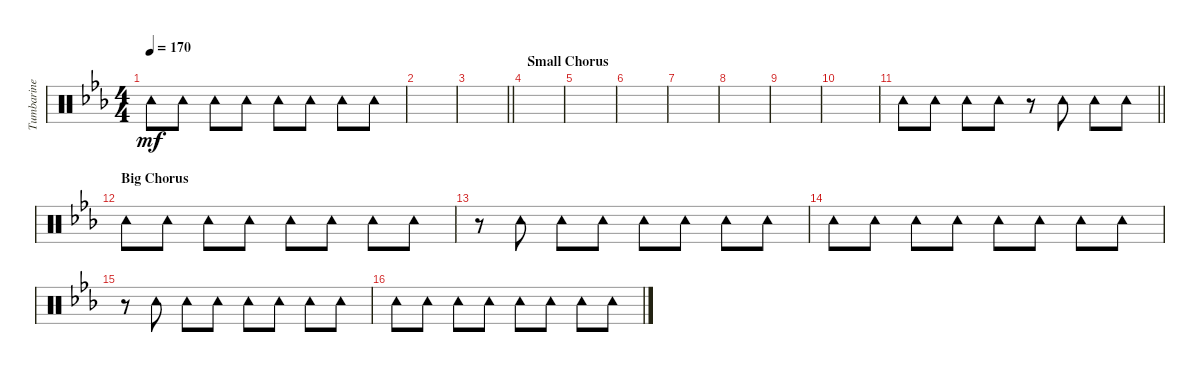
\track ("Tumbarine" "Tumbarine") {solo instrument percussion}
\staff {score}
\articulation defaults
\ts (4 4)
\tempo 170
\clef neutral
\ks eb "Tambourine (hit)".8{dy mf} "Tambourine (hit)".8 "Tambourine (hit)".8 "Tambourine (hit)".8 "Tambourine (hit)".8 "Tambourine (hit)".8 "Tambourine (hit)".8 "Tambourine (hit)".8
|
|
\barLineRight lightlight
|
\section ("" "Small Chorus")
|
|
|
|
|
|
|
\barLineRight lightlight "Tambourine (hit)".8 "Tambourine (hit)".8 "Tambourine (hit)".8 "Tambourine (hit)".8
r.8 "Tambourine (hit)".8 "Tambourine (hit)".8 "Tambourine (hit)".8 |
\section ("" "Big Chorus")
"Tambourine (hit)".8 "Tambourine (hit)".8 "Tambourine (hit)".8 "Tambourine (hit)".8 "Tambourine (hit)".8 "Tambourine (hit)".8 "Tambourine (hit)".8 "Tambourine (hit)".8 |
r.8 "Tambourine (hit)".8 "Tambourine (hit)".8 "Tambourine (hit)".8 "Tambourine (hit)".8 "Tambourine (hit)".8 "Tambourine (hit)".8 "Tambourine (hit)".8 |
"Tambourine (hit)".8 "Tambourine (hit)".8 "Tambourine (hit)".8 "Tambourine (hit)".8 "Tambourine (hit)".8 "Tambourine (hit)".8 "Tambourine (hit)".8 "Tambourine (hit)".8 |
r.8 "Tambourine (hit)".8 "Tambourine (hit)".8 "Tambourine (hit)".8 "Tambourine (hit)".8 "Tambourine (hit)".8 "Tambourine (hit)".8 "Tambourine (hit)".8 |
"Tambourine (hit)".8 "Tambourine (hit)".8 "Tambourine (hit)".8 "Tambourine (hit)".8 "Tambourine (hit)".8 "Tambourine (hit)".8 "Tambourine (hit)".8 "Tambourine (hit)".8
